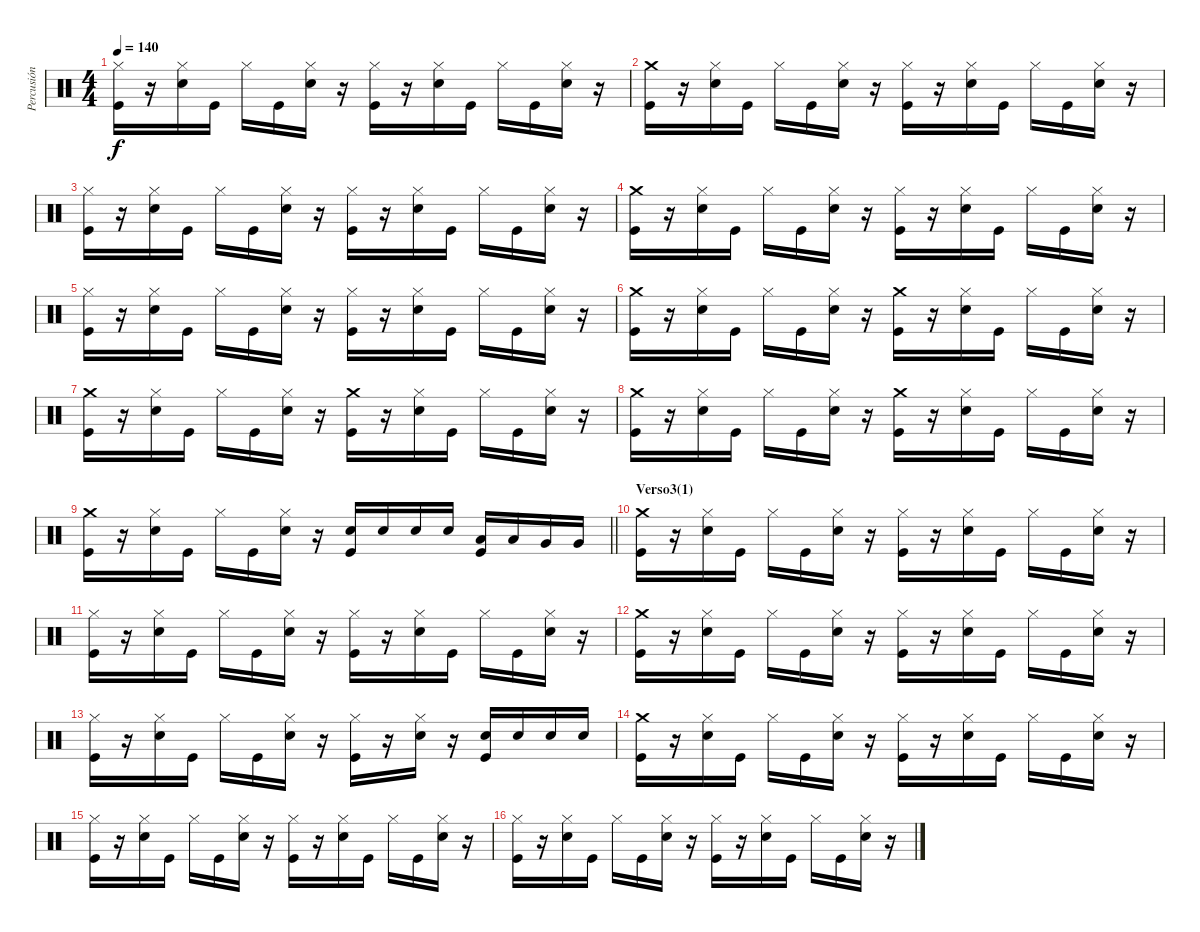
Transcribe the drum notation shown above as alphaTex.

\track ("Percusión" "Percusión") {instrument percussion}
\staff {score}
\articulation defaults
\ts (4 4)
\tempo 140
\clef neutral
\ks c
("Hi-Hat (closed)" "Kick (hit)").16{dy f} r.16 ("Hi-Hat (closed)" "Snare (hit) 2").16 "Kick (hit)".16 "Hi-Hat (closed)".16 "Kick (hit)".16 ("Hi-Hat (closed)" "Snare (hit) 2").16 r.16 ("Hi-Hat (closed)" "Kick (hit)").16 r.16 ("Hi-Hat (closed)" "Snare (hit) 2").16 "Kick (hit)".16 "Hi-Hat (closed)".16 "Kick (hit)".16 ("Hi-Hat (closed)" "Snare (hit) 2").16 r.16 |
("Crash medium (hit)" "Kick (hit)").16 r.16 ("Hi-Hat (closed)" "Snare (hit) 2").16 "Kick (hit)".16 "Hi-Hat (closed)".16 "Kick (hit)".16 ("Hi-Hat (closed)" "Snare (hit) 2").16 r.16 ("Hi-Hat (closed)" "Kick (hit)").16 r.16 ("Hi-Hat (closed)" "Snare (hit) 2").16 "Kick (hit)".16 "Hi-Hat (closed)".16 "Kick (hit)".16 ("Hi-Hat (closed)" "Snare (hit) 2").16 r.16 |
("Hi-Hat (closed)" "Kick (hit)").16 r.16 ("Hi-Hat (closed)" "Snare (hit) 2").16 "Kick (hit)".16 "Hi-Hat (closed)".16 "Kick (hit)".16 ("Hi-Hat (closed)" "Snare (hit) 2").16 r.16 ("Hi-Hat (closed)" "Kick (hit)").16 r.16 ("Hi-Hat (closed)" "Snare (hit) 2").16 "Kick (hit)".16 "Hi-Hat (closed)".16 "Kick (hit)".16 ("Hi-Hat (closed)" "Snare (hit) 2").16 r.16 |
("Crash medium (hit)" "Kick (hit)").16 r.16 ("Hi-Hat (closed)" "Snare (hit) 2").16 "Kick (hit)".16 "Hi-Hat (closed)".16 "Kick (hit)".16 ("Hi-Hat (closed)" "Snare (hit) 2").16 r.16 ("Hi-Hat (closed)" "Kick (hit)").16 r.16 ("Hi-Hat (closed)" "Snare (hit) 2").16 "Kick (hit)".16 "Hi-Hat (closed)".16 "Kick (hit)".16 ("Hi-Hat (closed)" "Snare (hit) 2").16 r.16 |
("Hi-Hat (closed)" "Kick (hit)").16 r.16 ("Hi-Hat (closed)" "Snare (hit) 2").16 "Kick (hit)".16 "Hi-Hat (closed)".16 "Kick (hit)".16 ("Hi-Hat (closed)" "Snare (hit) 2").16 r.16 ("Hi-Hat (closed)" "Kick (hit)").16 r.16 ("Hi-Hat (closed)" "Snare (hit) 2").16 "Kick (hit)".16 "Hi-Hat (closed)".16 "Kick (hit)".16 ("Hi-Hat (closed)" "Snare (hit) 2").16 r.16 |
("Crash medium (hit)" "Kick (hit)").16 r.16 ("Hi-Hat (closed)" "Snare (hit) 2").16 "Kick (hit)".16 "Hi-Hat (closed)".16 "Kick (hit)".16 ("Hi-Hat (closed)" "Snare (hit) 2").16 r.16 ("Crash medium (hit)" "Kick (hit)").16 r.16 ("Hi-Hat (closed)" "Snare (hit) 2").16 "Kick (hit)".16 "Hi-Hat (closed)".16 "Kick (hit)".16 ("Hi-Hat (closed)" "Snare (hit) 2").16 r.16 |
("Crash medium (hit)" "Kick (hit)").16 r.16 ("Hi-Hat (closed)" "Snare (hit) 2").16 "Kick (hit)".16 "Hi-Hat (closed)".16 "Kick (hit)".16 ("Hi-Hat (closed)" "Snare (hit) 2").16 r.16 ("Crash medium (hit)" "Kick (hit)").16 r.16 ("Hi-Hat (closed)" "Snare (hit) 2").16 "Kick (hit)".16 "Hi-Hat (closed)".16 "Kick (hit)".16 ("Hi-Hat (closed)" "Snare (hit) 2").16 r.16 |
("Crash medium (hit)" "Kick (hit)").16 r.16 ("Hi-Hat (closed)" "Snare (hit) 2").16 "Kick (hit)".16 "Hi-Hat (closed)".16 "Kick (hit)".16 ("Hi-Hat (closed)" "Snare (hit) 2").16 r.16 ("Crash medium (hit)" "Kick (hit)").16 r.16 ("Hi-Hat (closed)" "Snare (hit) 2").16 "Kick (hit)".16 "Hi-Hat (closed)".16 "Kick (hit)".16 ("Hi-Hat (closed)" "Snare (hit) 2").16 r.16 |
\barLineRight lightlight
("Crash medium (hit)" "Kick (hit)").16 r.16 ("Hi-Hat (closed)" "Snare (hit) 2").16 "Kick (hit)".16 "Hi-Hat (closed)".16 "Kick (hit)".16 ("Hi-Hat (closed)" "Snare (hit) 2").16 r.16 ("Snare (hit) 2" "Kick (hit)").16 "Snare (hit) 2".16 "Snare (hit) 2".16 "Snare (hit) 2".16 ("Low Tom (hit)" "Kick (hit)").16 "Low Tom (hit)".16 "Very Low Tom (hit)".16 "Very Low Tom (hit)".16 |
\section ("" "Verso3(1)")
("Crash medium (hit)" "Kick (hit)").16 r.16 ("Hi-Hat (closed)" "Snare (hit) 2").16 "Kick (hit)".16 "Hi-Hat (closed)".16 "Kick (hit)".16 ("Hi-Hat (closed)" "Snare (hit) 2").16 r.16 ("Hi-Hat (closed)" "Kick (hit)").16 r.16 ("Hi-Hat (closed)" "Snare (hit) 2").16 "Kick (hit)".16 "Hi-Hat (closed)".16 "Kick (hit)".16 ("Hi-Hat (closed)" "Snare (hit) 2").16 r.16 |
("Hi-Hat (closed)" "Kick (hit)").16 r.16 ("Hi-Hat (closed)" "Snare (hit) 2").16 "Kick (hit)".16 "Hi-Hat (closed)".16 "Kick (hit)".16 ("Hi-Hat (closed)" "Snare (hit) 2").16 r.16 ("Hi-Hat (closed)" "Kick (hit)").16 r.16 ("Hi-Hat (closed)" "Snare (hit) 2").16 "Kick (hit)".16 "Hi-Hat (closed)".16 "Kick (hit)".16 ("Hi-Hat (closed)" "Snare (hit) 2").16 r.16 |
("Crash medium (hit)" "Kick (hit)").16 r.16 ("Hi-Hat (closed)" "Snare (hit) 2").16 "Kick (hit)".16 "Hi-Hat (closed)".16 "Kick (hit)".16 ("Hi-Hat (closed)" "Snare (hit) 2").16 r.16 ("Hi-Hat (closed)" "Kick (hit)").16 r.16 ("Hi-Hat (closed)" "Snare (hit) 2").16 "Kick (hit)".16 "Hi-Hat (closed)".16 "Kick (hit)".16 ("Hi-Hat (closed)" "Snare (hit) 2").16 r.16 |
("Hi-Hat (closed)" "Kick (hit)").16 r.16 ("Hi-Hat (closed)" "Snare (hit) 2").16 "Kick (hit)".16 "Hi-Hat (closed)".16 "Kick (hit)".16 ("Hi-Hat (closed)" "Snare (hit) 2").16 r.16 ("Hi-Hat (closed)" "Kick (hit)").16 r.16 ("Hi-Hat (closed)" "Snare (hit) 2").16 r.16 ("Snare (hit) 2" "Kick (hit)").16 "Snare (hit) 2".16 "Snare (hit) 2".16 "Snare (hit) 2".16 |
("Crash medium (hit)" "Kick (hit)").16 r.16 ("Hi-Hat (closed)" "Snare (hit) 2").16 "Kick (hit)".16 "Hi-Hat (closed)".16 "Kick (hit)".16 ("Hi-Hat (closed)" "Snare (hit) 2").16 r.16 ("Hi-Hat (closed)" "Kick (hit)").16 r.16 ("Hi-Hat (closed)" "Snare (hit) 2").16 "Kick (hit)".16 "Hi-Hat (closed)".16 "Kick (hit)".16 ("Hi-Hat (closed)" "Snare (hit) 2").16 r.16 |
("Hi-Hat (closed)" "Kick (hit)").16 r.16 ("Hi-Hat (closed)" "Snare (hit) 2").16 "Kick (hit)".16 "Hi-Hat (closed)".16 "Kick (hit)".16 ("Hi-Hat (closed)" "Snare (hit) 2").16 r.16 ("Hi-Hat (closed)" "Kick (hit)").16 r.16 ("Hi-Hat (closed)" "Snare (hit) 2").16 "Kick (hit)".16 "Hi-Hat (closed)".16 "Kick (hit)".16 ("Hi-Hat (closed)" "Snare (hit) 2").16 r.16 |
("Hi-Hat (closed)" "Kick (hit)").16 r.16 ("Hi-Hat (closed)" "Snare (hit) 2").16 "Kick (hit)".16 "Hi-Hat (closed)".16 "Kick (hit)".16 ("Hi-Hat (closed)" "Snare (hit) 2").16 r.16 ("Hi-Hat (closed)" "Kick (hit)").16 r.16 ("Hi-Hat (closed)" "Snare (hit) 2").16 "Kick (hit)".16 "Hi-Hat (closed)".16 "Kick (hit)".16 ("Hi-Hat (closed)" "Snare (hit) 2").16 r.16
